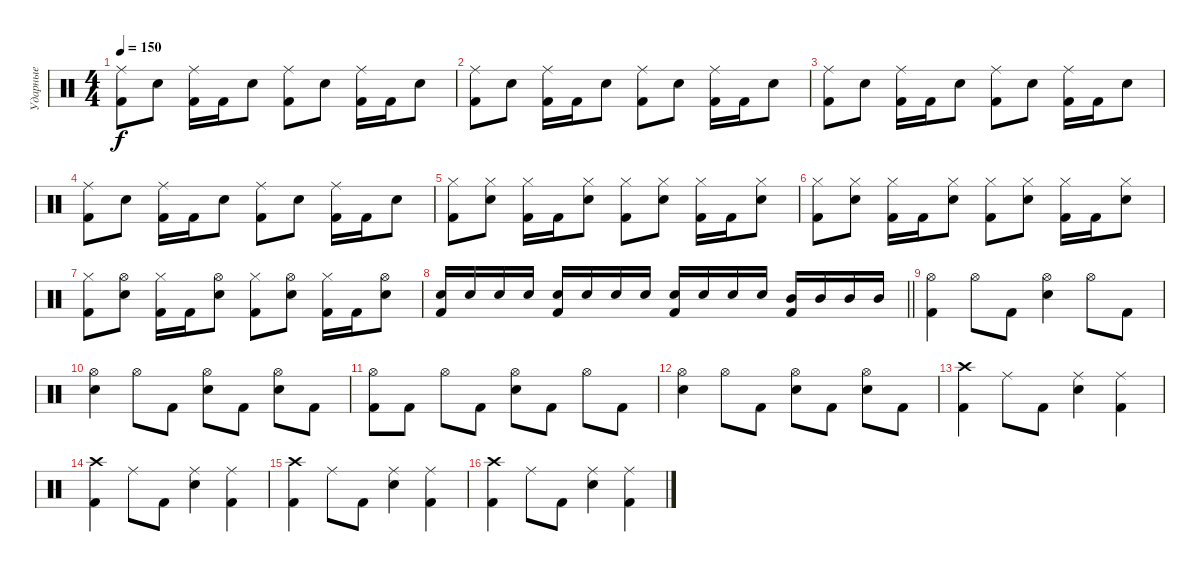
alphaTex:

\track ("Ударные" "Ударные") {instrument percussion}
\staff {score}
\articulation defaults
\ts (4 4)
\tempo 150
\clef neutral
\ks c
("Ride (middle)" "Kick (hit) 2").8{dy f} "Snare (hit) 2".8 ("Ride (middle)" "Kick (hit) 2").16 "Kick (hit) 2".16 "Snare (hit) 2".8 ("Ride (middle)" "Kick (hit) 2").8 "Snare (hit) 2".8 ("Ride (middle)" "Kick (hit) 2").16 "Kick (hit) 2".16 "Snare (hit) 2".8 |
("Ride (middle)" "Kick (hit) 2").8 "Snare (hit) 2".8 ("Ride (middle)" "Kick (hit) 2").16 "Kick (hit) 2".16 "Snare (hit) 2".8 ("Ride (middle)" "Kick (hit) 2").8 "Snare (hit) 2".8 ("Ride (middle)" "Kick (hit) 2").16 "Kick (hit) 2".16 "Snare (hit) 2".8 |
("Ride (middle)" "Kick (hit) 2").8 "Snare (hit) 2".8 ("Ride (middle)" "Kick (hit) 2").16 "Kick (hit) 2".16 "Snare (hit) 2".8 ("Ride (middle)" "Kick (hit) 2").8 "Snare (hit) 2".8 ("Ride (middle)" "Kick (hit) 2").16 "Kick (hit) 2".16 "Snare (hit) 2".8 |
("Ride (middle)" "Kick (hit) 2").8 "Snare (hit) 2".8 ("Ride (middle)" "Kick (hit) 2").16 "Kick (hit) 2".16 "Snare (hit) 2".8 ("Ride (middle)" "Kick (hit) 2").8 "Snare (hit) 2".8 ("Ride (middle)" "Kick (hit) 2").16 "Kick (hit) 2".16 "Snare (hit) 2".8 |
("Hi-Hat (closed)" "Kick (hit) 2").8 ("Hi-Hat (closed)" "Snare (hit) 2").8 ("Hi-Hat (closed)" "Kick (hit) 2").16 "Kick (hit) 2".16 ("Hi-Hat (closed)" "Snare (hit) 2").8 ("Hi-Hat (closed)" "Kick (hit) 2").8 ("Hi-Hat (closed)" "Snare (hit) 2").8 ("Hi-Hat (closed)" "Kick (hit) 2").16 "Kick (hit) 2".16 ("Hi-Hat (closed)" "Snare (hit) 2").8 |
("Hi-Hat (closed)" "Kick (hit) 2").8 ("Hi-Hat (closed)" "Snare (hit) 2").8 ("Hi-Hat (closed)" "Kick (hit) 2").16 "Kick (hit) 2".16 ("Hi-Hat (closed)" "Snare (hit) 2").8 ("Hi-Hat (closed)" "Kick (hit) 2").8 ("Hi-Hat (closed)" "Snare (hit) 2").8 ("Hi-Hat (closed)" "Kick (hit) 2").16 "Kick (hit) 2".16 ("Hi-Hat (closed)" "Snare (hit) 2").8 |
("Hi-Hat (closed)" "Kick (hit) 2").8 ("Hi-Hat (open)" "Snare (hit) 2").8 ("Hi-Hat (closed)" "Kick (hit) 2").16 "Kick (hit) 2".16 ("Hi-Hat (open)" "Snare (hit) 2").8 ("Hi-Hat (closed)" "Kick (hit) 2").8 ("Hi-Hat (open)" "Snare (hit) 2").8 ("Hi-Hat (closed)" "Kick (hit) 2").16 "Kick (hit) 2".16 ("Hi-Hat (open)" "Snare (hit) 2").8 |
\barLineRight lightlight
("Kick (hit) 2" "Snare (hit) 2").16 "Snare (hit) 2".16 "Snare (hit) 2".16 "Snare (hit) 2".16 ("Kick (hit) 2" "Snare (hit) 2").16 "Snare (hit) 2".16 "Snare (hit) 2".16 "Snare (hit) 2".16 ("Kick (hit) 2" "Snare (hit) 2").16 "Snare (hit) 2".16 "Snare (hit) 2".16 "Snare (hit) 2".16 ("Kick (hit) 2" "Mid Tom (hit)").16 "Mid Tom (hit)".16 "Mid Tom (hit)".16 "Mid Tom (hit)".16 |
("Hi-Hat (open)" "Kick (hit) 2").4 "Hi-Hat (open)".8 "Kick (hit) 2".8 ("Hi-Hat (open)" "Snare (hit) 2").4 "Hi-Hat (open)".8 "Kick (hit) 2".8 |
("Hi-Hat (open)" "Snare (hit) 2").4 "Hi-Hat (open)".8 "Kick (hit) 2".8 ("Hi-Hat (open)" "Snare (hit) 2").8 "Kick (hit) 2".8 ("Hi-Hat (open)" "Snare (hit) 2").8 "Kick (hit) 2".8 |
("Hi-Hat (open)" "Kick (hit) 2").8 "Kick (hit) 2".8 "Hi-Hat (open)".8 "Kick (hit) 2".8 ("Hi-Hat (open)" "Snare (hit) 2").8 "Kick (hit) 2".8 "Hi-Hat (open)".8 "Kick (hit) 2".8 |
("Hi-Hat (open)" "Snare (hit) 2").4 "Hi-Hat (open)".8 "Kick (hit) 2".8 ("Hi-Hat (open)" "Snare (hit) 2").8 "Kick (hit) 2".8 ("Hi-Hat (open)" "Snare (hit) 2").8 "Kick (hit) 2".8 |
("Crash high (hit)" "Kick (hit) 2").4 "Ride (middle)".8 "Kick (hit) 2".8 ("Ride (middle)" "Snare (hit) 2").4 ("Ride (middle)" "Kick (hit) 2").4 |
("Crash high (hit)" "Kick (hit) 2").4 "Ride (middle)".8 "Kick (hit) 2".8 ("Ride (middle)" "Snare (hit) 2").4 ("Ride (middle)" "Kick (hit) 2").4 |
("Crash high (hit)" "Kick (hit) 2").4 "Ride (middle)".8 "Kick (hit) 2".8 ("Ride (middle)" "Snare (hit) 2").4 ("Ride (middle)" "Kick (hit) 2").4 |
("Crash high (hit)" "Kick (hit) 2").4 "Ride (middle)".8 "Kick (hit) 2".8 ("Ride (middle)" "Snare (hit) 2").4 ("Ride (middle)" "Kick (hit) 2").4
